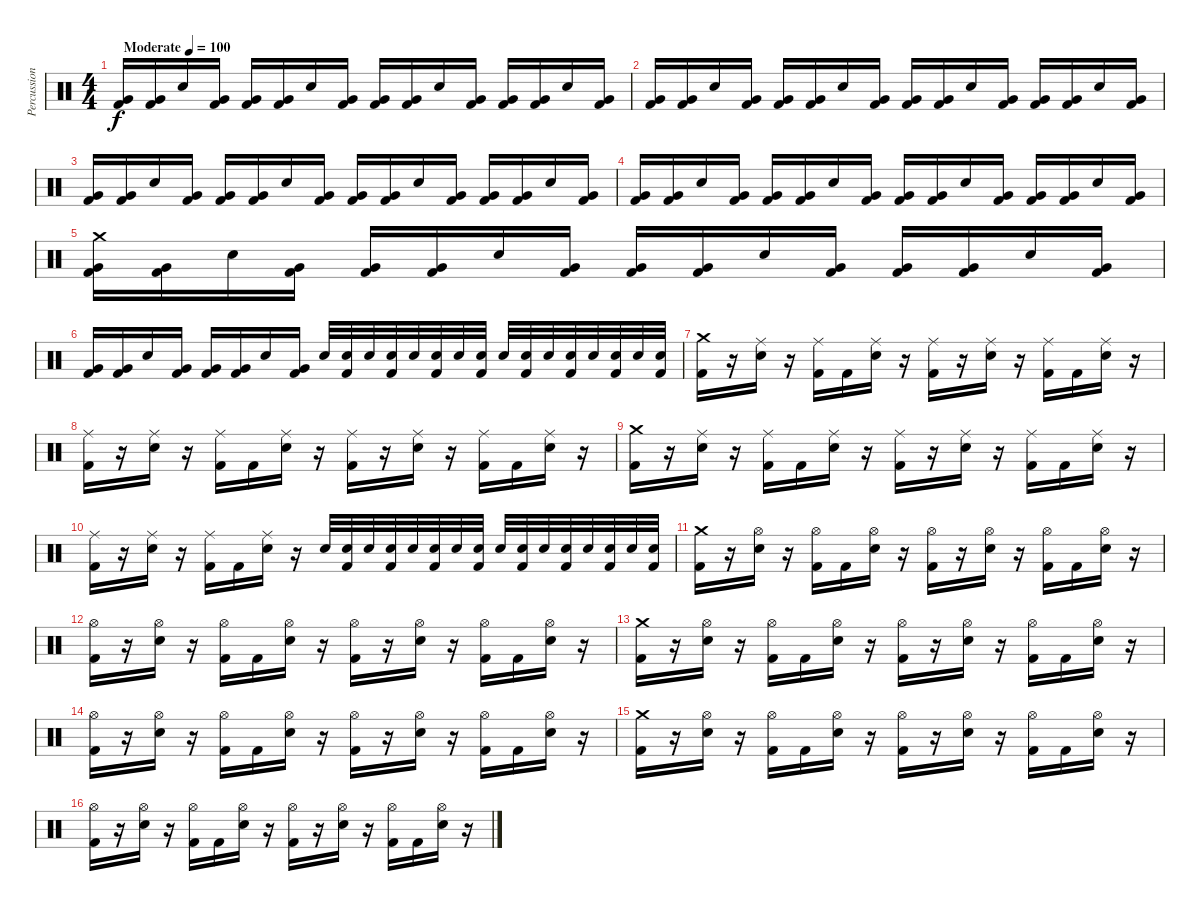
\track ("Percussion" "Percussion") {instrument percussion}
\staff {score}
\articulation defaults
\ts (4 4)
\tempo (100 "Moderate")
\clef neutral
\ks c
("Very Low Tom (hit)" "Kick (hit) 2").16{dy f} ("Very Low Tom (hit)" "Kick (hit) 2").16 "Electric Snare (hit)".16 ("Very Low Tom (hit)" "Kick (hit) 2").16 ("Very Low Tom (hit)" "Kick (hit) 2").16 ("Very Low Tom (hit)" "Kick (hit) 2").16 "Electric Snare (hit)".16 ("Very Low Tom (hit)" "Kick (hit) 2").16 ("Very Low Tom (hit)" "Kick (hit) 2").16 ("Very Low Tom (hit)" "Kick (hit) 2").16 "Electric Snare (hit)".16 ("Very Low Tom (hit)" "Kick (hit) 2").16 ("Very Low Tom (hit)" "Kick (hit) 2").16 ("Very Low Tom (hit)" "Kick (hit) 2").16 "Electric Snare (hit)".16 ("Very Low Tom (hit)" "Kick (hit) 2").16 |
("Very Low Tom (hit)" "Kick (hit) 2").16 ("Very Low Tom (hit)" "Kick (hit) 2").16 "Electric Snare (hit)".16 ("Very Low Tom (hit)" "Kick (hit) 2").16 ("Very Low Tom (hit)" "Kick (hit) 2").16 ("Very Low Tom (hit)" "Kick (hit) 2").16 "Electric Snare (hit)".16 ("Very Low Tom (hit)" "Kick (hit) 2").16 ("Very Low Tom (hit)" "Kick (hit) 2").16 ("Very Low Tom (hit)" "Kick (hit) 2").16 "Electric Snare (hit)".16 ("Very Low Tom (hit)" "Kick (hit) 2").16 ("Very Low Tom (hit)" "Kick (hit) 2").16 ("Very Low Tom (hit)" "Kick (hit) 2").16 "Electric Snare (hit)".16 ("Very Low Tom (hit)" "Kick (hit) 2").16 |
("Very Low Tom (hit)" "Kick (hit) 2").16 ("Very Low Tom (hit)" "Kick (hit) 2").16 "Electric Snare (hit)".16 ("Very Low Tom (hit)" "Kick (hit) 2").16 ("Very Low Tom (hit)" "Kick (hit) 2").16 ("Very Low Tom (hit)" "Kick (hit) 2").16 "Electric Snare (hit)".16 ("Very Low Tom (hit)" "Kick (hit) 2").16 ("Very Low Tom (hit)" "Kick (hit) 2").16 ("Very Low Tom (hit)" "Kick (hit) 2").16 "Electric Snare (hit)".16 ("Very Low Tom (hit)" "Kick (hit) 2").16 ("Very Low Tom (hit)" "Kick (hit) 2").16 ("Very Low Tom (hit)" "Kick (hit) 2").16 "Electric Snare (hit)".16 ("Very Low Tom (hit)" "Kick (hit) 2").16 |
("Very Low Tom (hit)" "Kick (hit) 2").16 ("Very Low Tom (hit)" "Kick (hit) 2").16 "Electric Snare (hit)".16 ("Very Low Tom (hit)" "Kick (hit) 2").16 ("Very Low Tom (hit)" "Kick (hit) 2").16 ("Very Low Tom (hit)" "Kick (hit) 2").16 "Electric Snare (hit)".16 ("Very Low Tom (hit)" "Kick (hit) 2").16 ("Very Low Tom (hit)" "Kick (hit) 2").16 ("Very Low Tom (hit)" "Kick (hit) 2").16 "Electric Snare (hit)".16 ("Very Low Tom (hit)" "Kick (hit) 2").16 ("Very Low Tom (hit)" "Kick (hit) 2").16 ("Very Low Tom (hit)" "Kick (hit) 2").16 "Electric Snare (hit)".16 ("Very Low Tom (hit)" "Kick (hit) 2").16 |
("Crash medium (hit)" "Very Low Tom (hit)" "Kick (hit) 2").16 ("Very Low Tom (hit)" "Kick (hit) 2").16 "Electric Snare (hit)".16 ("Very Low Tom (hit)" "Kick (hit) 2").16 ("Very Low Tom (hit)" "Kick (hit) 2").16 ("Very Low Tom (hit)" "Kick (hit) 2").16 "Electric Snare (hit)".16 ("Very Low Tom (hit)" "Kick (hit) 2").16 ("Very Low Tom (hit)" "Kick (hit) 2").16 ("Very Low Tom (hit)" "Kick (hit) 2").16 "Electric Snare (hit)".16 ("Very Low Tom (hit)" "Kick (hit) 2").16 ("Very Low Tom (hit)" "Kick (hit) 2").16 ("Very Low Tom (hit)" "Kick (hit) 2").16 "Electric Snare (hit)".16 ("Very Low Tom (hit)" "Kick (hit) 2").16 |
("Very Low Tom (hit)" "Kick (hit) 2").16 ("Very Low Tom (hit)" "Kick (hit) 2").16 "Electric Snare (hit)".16 ("Very Low Tom (hit)" "Kick (hit) 2").16 ("Very Low Tom (hit)" "Kick (hit) 2").16 ("Very Low Tom (hit)" "Kick (hit) 2").16 "Electric Snare (hit)".16 ("Very Low Tom (hit)" "Kick (hit) 2").16 "Electric Snare (hit)".32 ("Electric Snare (hit)" "Kick (hit) 2").32 "Electric Snare (hit)".32 ("Electric Snare (hit)" "Kick (hit) 2").32 "Electric Snare (hit)".32 ("Electric Snare (hit)" "Kick (hit) 2").32 "Electric Snare (hit)".32 ("Electric Snare (hit)" "Kick (hit) 2").32 "Electric Snare (hit)".32 ("Electric Snare (hit)" "Kick (hit) 2").32 "Electric Snare (hit)".32 ("Electric Snare (hit)" "Kick (hit) 2").32 "Electric Snare (hit)".32 ("Electric Snare (hit)" "Kick (hit) 2").32 "Electric Snare (hit)".32 ("Electric Snare (hit)" "Kick (hit) 2").32 |
("Crash medium (hit)" "Kick (hit) 2").16 r.16 ("Ride (middle)" "Electric Snare (hit)").16 r.16 ("Ride (middle)" "Kick (hit) 2").16 "Kick (hit) 2".16 ("Ride (middle)" "Electric Snare (hit)").16 r.16 ("Ride (middle)" "Kick (hit) 2").16 r.16 ("Ride (middle)" "Electric Snare (hit)").16 r.16 ("Ride (middle)" "Kick (hit) 2").16 "Kick (hit) 2".16 ("Ride (middle)" "Electric Snare (hit)").16 r.16 |
("Ride (middle)" "Kick (hit) 2").16 r.16 ("Ride (middle)" "Electric Snare (hit)").16 r.16 ("Ride (middle)" "Kick (hit) 2").16 "Kick (hit) 2".16 ("Ride (middle)" "Electric Snare (hit)").16 r.16 ("Ride (middle)" "Kick (hit) 2").16 r.16 ("Ride (middle)" "Electric Snare (hit)").16 r.16 ("Ride (middle)" "Kick (hit) 2").16 "Kick (hit) 2".16 ("Ride (middle)" "Electric Snare (hit)").16 r.16 |
("Crash medium (hit)" "Kick (hit) 2").16 r.16 ("Ride (middle)" "Electric Snare (hit)").16 r.16 ("Ride (middle)" "Kick (hit) 2").16 "Kick (hit) 2".16 ("Ride (middle)" "Electric Snare (hit)").16 r.16 ("Ride (middle)" "Kick (hit) 2").16 r.16 ("Ride (middle)" "Electric Snare (hit)").16 r.16 ("Ride (middle)" "Kick (hit) 2").16 "Kick (hit) 2".16 ("Ride (middle)" "Electric Snare (hit)").16 r.16 |
("Ride (middle)" "Kick (hit) 2").16 r.16 ("Ride (middle)" "Electric Snare (hit)").16 r.16 ("Ride (middle)" "Kick (hit) 2").16 "Kick (hit) 2".16 ("Ride (middle)" "Electric Snare (hit)").16 r.16 "Electric Snare (hit)".32 ("Electric Snare (hit)" "Kick (hit) 2").32 "Electric Snare (hit)".32 ("Electric Snare (hit)" "Kick (hit) 2").32 "Electric Snare (hit)".32 ("Electric Snare (hit)" "Kick (hit) 2").32 "Electric Snare (hit)".32 ("Electric Snare (hit)" "Kick (hit) 2").32 "Electric Snare (hit)".32 ("Electric Snare (hit)" "Kick (hit) 2").32 "Electric Snare (hit)".32 ("Electric Snare (hit)" "Kick (hit) 2").32 "Electric Snare (hit)".32 ("Electric Snare (hit)" "Kick (hit) 2").32 "Electric Snare (hit)".32 ("Electric Snare (hit)" "Kick (hit) 2").32 |
("Crash medium (hit)" "Kick (hit) 2").16 r.16 ("Hi-Hat (open)" "Electric Snare (hit)").16 r.16 ("Hi-Hat (open)" "Kick (hit) 2").16 "Kick (hit) 2".16 ("Hi-Hat (open)" "Electric Snare (hit)").16 r.16 ("Hi-Hat (open)" "Kick (hit) 2").16 r.16 ("Hi-Hat (open)" "Electric Snare (hit)").16 r.16 ("Hi-Hat (open)" "Kick (hit) 2").16 "Kick (hit) 2".16 ("Hi-Hat (open)" "Electric Snare (hit)").16 r.16 |
("Hi-Hat (open)" "Kick (hit) 2").16 r.16 ("Hi-Hat (open)" "Electric Snare (hit)").16 r.16 ("Hi-Hat (open)" "Kick (hit) 2").16 "Kick (hit) 2".16 ("Hi-Hat (open)" "Electric Snare (hit)").16 r.16 ("Hi-Hat (open)" "Kick (hit) 2").16 r.16 ("Hi-Hat (open)" "Electric Snare (hit)").16 r.16 ("Hi-Hat (open)" "Kick (hit) 2").16 "Kick (hit) 2".16 ("Hi-Hat (open)" "Electric Snare (hit)").16 r.16 |
("Crash medium (hit)" "Kick (hit) 2").16 r.16 ("Hi-Hat (open)" "Electric Snare (hit)").16 r.16 ("Hi-Hat (open)" "Kick (hit) 2").16 "Kick (hit) 2".16 ("Hi-Hat (open)" "Electric Snare (hit)").16 r.16 ("Hi-Hat (open)" "Kick (hit) 2").16 r.16 ("Hi-Hat (open)" "Electric Snare (hit)").16 r.16 ("Hi-Hat (open)" "Kick (hit) 2").16 "Kick (hit) 2".16 ("Hi-Hat (open)" "Electric Snare (hit)").16 r.16 |
("Hi-Hat (open)" "Kick (hit) 2").16 r.16 ("Hi-Hat (open)" "Electric Snare (hit)").16 r.16 ("Hi-Hat (open)" "Kick (hit) 2").16 "Kick (hit) 2".16 ("Hi-Hat (open)" "Electric Snare (hit)").16 r.16 ("Hi-Hat (open)" "Kick (hit) 2").16 r.16 ("Hi-Hat (open)" "Electric Snare (hit)").16 r.16 ("Hi-Hat (open)" "Kick (hit) 2").16 "Kick (hit) 2".16 ("Hi-Hat (open)" "Electric Snare (hit)").16 r.16 |
("Crash medium (hit)" "Kick (hit) 2").16 r.16 ("Hi-Hat (open)" "Electric Snare (hit)").16 r.16 ("Hi-Hat (open)" "Kick (hit) 2").16 "Kick (hit) 2".16 ("Hi-Hat (open)" "Electric Snare (hit)").16 r.16 ("Hi-Hat (open)" "Kick (hit) 2").16 r.16 ("Hi-Hat (open)" "Electric Snare (hit)").16 r.16 ("Hi-Hat (open)" "Kick (hit) 2").16 "Kick (hit) 2".16 ("Hi-Hat (open)" "Electric Snare (hit)").16 r.16 |
("Hi-Hat (open)" "Kick (hit) 2").16 r.16 ("Hi-Hat (open)" "Electric Snare (hit)").16 r.16 ("Hi-Hat (open)" "Kick (hit) 2").16 "Kick (hit) 2".16 ("Hi-Hat (open)" "Electric Snare (hit)").16 r.16 ("Hi-Hat (open)" "Kick (hit) 2").16 r.16 ("Hi-Hat (open)" "Electric Snare (hit)").16 r.16 ("Hi-Hat (open)" "Kick (hit) 2").16 "Kick (hit) 2".16 ("Hi-Hat (open)" "Electric Snare (hit)").16 r.16
